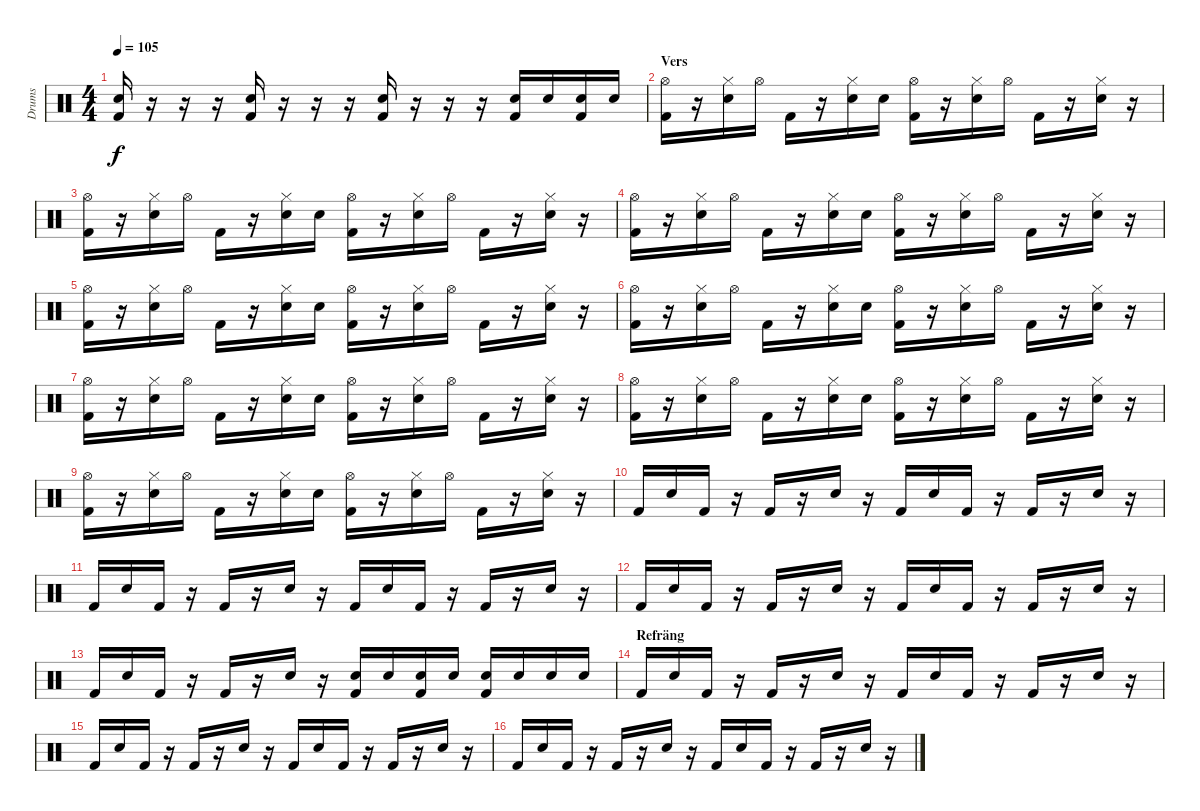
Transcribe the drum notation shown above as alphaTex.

\track ("Drums" "Drums") {instrument percussion}
\staff {score}
\articulation defaults
\ts (4 4)
\tempo 105
\clef neutral
\ks c
("Snare (hit) 2" "Kick (hit) 2").16{dy f} r.16 r.16 r.16 ("Snare (hit) 2" "Kick (hit) 2").16 r.16 r.16 r.16 ("Snare (hit) 2" "Kick (hit) 2").16 r.16 r.16 r.16 ("Snare (hit) 2" "Kick (hit) 2").16 "Snare (hit) 2".16 ("Snare (hit) 2" "Kick (hit) 2").16 "Snare (hit) 2".16 |
\section ("" "Vers")
("Hi-Hat (open)" "Kick (hit) 2").16 r.16 ("Hi-Hat (closed)" "Snare (hit) 2").16 "Hi-Hat (open)".16 "Kick (hit) 2".16 r.16 ("Hi-Hat (closed)" "Snare (hit) 2").16 "Snare (hit) 2".16 ("Hi-Hat (open)" "Kick (hit) 2").16 r.16 ("Hi-Hat (closed)" "Snare (hit) 2").16 "Hi-Hat (open)".16 "Kick (hit) 2".16 r.16 ("Hi-Hat (closed)" "Snare (hit) 2").16 r.16 |
("Hi-Hat (open)" "Kick (hit) 2").16 r.16 ("Hi-Hat (closed)" "Snare (hit) 2").16 "Hi-Hat (open)".16 "Kick (hit) 2".16 r.16 ("Hi-Hat (closed)" "Snare (hit) 2").16 "Snare (hit) 2".16 ("Hi-Hat (open)" "Kick (hit) 2").16 r.16 ("Hi-Hat (closed)" "Snare (hit) 2").16 "Hi-Hat (open)".16 "Kick (hit) 2".16 r.16 ("Hi-Hat (closed)" "Snare (hit) 2").16 r.16 |
("Hi-Hat (open)" "Kick (hit) 2").16 r.16 ("Hi-Hat (closed)" "Snare (hit) 2").16 "Hi-Hat (open)".16 "Kick (hit) 2".16 r.16 ("Hi-Hat (closed)" "Snare (hit) 2").16 "Snare (hit) 2".16 ("Hi-Hat (open)" "Kick (hit) 2").16 r.16 ("Hi-Hat (closed)" "Snare (hit) 2").16 "Hi-Hat (open)".16 "Kick (hit) 2".16 r.16 ("Hi-Hat (closed)" "Snare (hit) 2").16 r.16 |
("Hi-Hat (open)" "Kick (hit) 2").16 r.16 ("Hi-Hat (closed)" "Snare (hit) 2").16 "Hi-Hat (open)".16 "Kick (hit) 2".16 r.16 ("Hi-Hat (closed)" "Snare (hit) 2").16 "Snare (hit) 2".16 ("Hi-Hat (open)" "Kick (hit) 2").16 r.16 ("Hi-Hat (closed)" "Snare (hit) 2").16 "Hi-Hat (open)".16 "Kick (hit) 2".16 r.16 ("Hi-Hat (closed)" "Snare (hit) 2").16 r.16 |
("Hi-Hat (open)" "Kick (hit) 2").16 r.16 ("Hi-Hat (closed)" "Snare (hit) 2").16 "Hi-Hat (open)".16 "Kick (hit) 2".16 r.16 ("Hi-Hat (closed)" "Snare (hit) 2").16 "Snare (hit) 2".16 ("Hi-Hat (open)" "Kick (hit) 2").16 r.16 ("Hi-Hat (closed)" "Snare (hit) 2").16 "Hi-Hat (open)".16 "Kick (hit) 2".16 r.16 ("Hi-Hat (closed)" "Snare (hit) 2").16 r.16 |
("Hi-Hat (open)" "Kick (hit) 2").16 r.16 ("Hi-Hat (closed)" "Snare (hit) 2").16 "Hi-Hat (open)".16 "Kick (hit) 2".16 r.16 ("Hi-Hat (closed)" "Snare (hit) 2").16 "Snare (hit) 2".16 ("Hi-Hat (open)" "Kick (hit) 2").16 r.16 ("Hi-Hat (closed)" "Snare (hit) 2").16 "Hi-Hat (open)".16 "Kick (hit) 2".16 r.16 ("Hi-Hat (closed)" "Snare (hit) 2").16 r.16 |
("Hi-Hat (open)" "Kick (hit) 2").16 r.16 ("Hi-Hat (closed)" "Snare (hit) 2").16 "Hi-Hat (open)".16 "Kick (hit) 2".16 r.16 ("Hi-Hat (closed)" "Snare (hit) 2").16 "Snare (hit) 2".16 ("Hi-Hat (open)" "Kick (hit) 2").16 r.16 ("Hi-Hat (closed)" "Snare (hit) 2").16 "Hi-Hat (open)".16 "Kick (hit) 2".16 r.16 ("Hi-Hat (closed)" "Snare (hit) 2").16 r.16 |
("Hi-Hat (open)" "Kick (hit) 2").16 r.16 ("Hi-Hat (closed)" "Snare (hit) 2").16 "Hi-Hat (open)".16 "Kick (hit) 2".16 r.16 ("Hi-Hat (closed)" "Snare (hit) 2").16 "Snare (hit) 2".16 ("Hi-Hat (open)" "Kick (hit) 2").16 r.16 ("Hi-Hat (closed)" "Snare (hit) 2").16 "Hi-Hat (open)".16 "Kick (hit) 2".16 r.16 ("Hi-Hat (closed)" "Snare (hit) 2").16 r.16 |
"Kick (hit) 2".16 "Snare (hit) 2".16 "Kick (hit) 2".16 r.16 "Kick (hit) 2".16 r.16 "Snare (hit) 2".16 r.16 "Kick (hit) 2".16 "Snare (hit) 2".16 "Kick (hit) 2".16 r.16 "Kick (hit) 2".16 r.16 "Snare (hit) 2".16 r.16 |
"Kick (hit) 2".16 "Snare (hit) 2".16 "Kick (hit) 2".16 r.16 "Kick (hit) 2".16 r.16 "Snare (hit) 2".16 r.16 "Kick (hit) 2".16 "Snare (hit) 2".16 "Kick (hit) 2".16 r.16 "Kick (hit) 2".16 r.16 "Snare (hit) 2".16 r.16 |
"Kick (hit) 2".16 "Snare (hit) 2".16 "Kick (hit) 2".16 r.16 "Kick (hit) 2".16 r.16 "Snare (hit) 2".16 r.16 "Kick (hit) 2".16 "Snare (hit) 2".16 "Kick (hit) 2".16 r.16 "Kick (hit) 2".16 r.16 "Snare (hit) 2".16 r.16 |
"Kick (hit) 2".16 "Snare (hit) 2".16 "Kick (hit) 2".16 r.16 "Kick (hit) 2".16 r.16 "Snare (hit) 2".16 r.16 ("Electric Snare (hit)" "Kick (hit) 2").16 "Electric Snare (hit)".16 ("Electric Snare (hit)" "Kick (hit) 2").16 "Electric Snare (hit)".16 ("Electric Snare (hit)" "Kick (hit) 2").16 "Electric Snare (hit)".16 "Electric Snare (hit)".16 "Electric Snare (hit)".16 |
\section ("" "Refräng")
"Kick (hit) 2".16 "Snare (hit) 2".16 "Kick (hit) 2".16 r.16 "Kick (hit) 2".16 r.16 "Snare (hit) 2".16 r.16 "Kick (hit) 2".16 "Snare (hit) 2".16 "Kick (hit) 2".16 r.16 "Kick (hit) 2".16 r.16 "Snare (hit) 2".16 r.16 |
"Kick (hit) 2".16 "Snare (hit) 2".16 "Kick (hit) 2".16 r.16 "Kick (hit) 2".16 r.16 "Snare (hit) 2".16 r.16 "Kick (hit) 2".16 "Snare (hit) 2".16 "Kick (hit) 2".16 r.16 "Kick (hit) 2".16 r.16 "Snare (hit) 2".16 r.16 |
"Kick (hit) 2".16 "Snare (hit) 2".16 "Kick (hit) 2".16 r.16 "Kick (hit) 2".16 r.16 "Snare (hit) 2".16 r.16 "Kick (hit) 2".16 "Snare (hit) 2".16 "Kick (hit) 2".16 r.16 "Kick (hit) 2".16 r.16 "Snare (hit) 2".16 r.16
